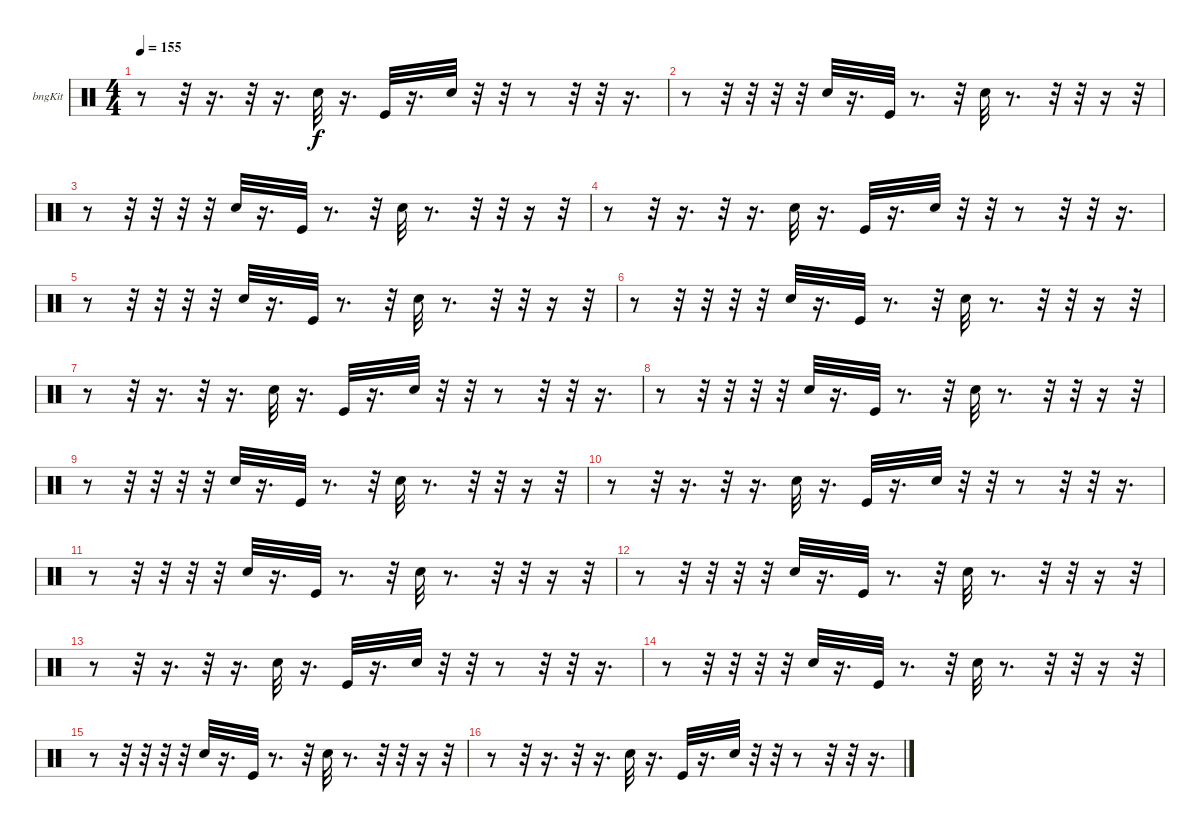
\bracketExtendMode groupsimilarinstruments
\firstSystemTrackNameOrientation horizontal
\otherSystemsTrackNameOrientation horizontal
\track ("Е. Кулаков" "bngKit") {instrument percussion}
\staff {score}
\articulation defaults
\ts (4 4)
\tempo 155
\clef neutral
\ks c
r.8{dy f} r.32 r.16{d} r.32 r.16{d} "Snare (hit) 2".32 r.16{d} "Kick (hit)".32 r.16{d} "Snare (hit) 2".32 r.32 r.32 r.8 r.32 r.32 r.16{d} |
r.8 r.32 r.32 r.32 r.32 "Snare (hit) 2".32 r.16{d} "Kick (hit)".32 r.8{d} r.32 "Snare (hit) 2".32 r.8{d} r.32 r.32 r.16 r.32 |
r.8 r.32 r.32 r.32 r.32 "Snare (hit) 2".32 r.16{d} "Kick (hit)".32 r.8{d} r.32 "Snare (hit) 2".32 r.8{d} r.32 r.32 r.16 r.32 |
r.8 r.32 r.16{d} r.32 r.16{d} "Snare (hit) 2".32 r.16{d} "Kick (hit)".32 r.16{d} "Snare (hit) 2".32 r.32 r.32 r.8 r.32 r.32 r.16{d} |
r.8 r.32 r.32 r.32 r.32 "Snare (hit) 2".32 r.16{d} "Kick (hit)".32 r.8{d} r.32 "Snare (hit) 2".32 r.8{d} r.32 r.32 r.16 r.32 |
r.8 r.32 r.32 r.32 r.32 "Snare (hit) 2".32 r.16{d} "Kick (hit)".32 r.8{d} r.32 "Snare (hit) 2".32 r.8{d} r.32 r.32 r.16 r.32 |
r.8 r.32 r.16{d} r.32 r.16{d} "Snare (hit) 2".32 r.16{d} "Kick (hit)".32 r.16{d} "Snare (hit) 2".32 r.32 r.32 r.8 r.32 r.32 r.16{d} |
r.8 r.32 r.32 r.32 r.32 "Snare (hit) 2".32 r.16{d} "Kick (hit)".32 r.8{d} r.32 "Snare (hit) 2".32 r.8{d} r.32 r.32 r.16 r.32 |
r.8 r.32 r.32 r.32 r.32 "Snare (hit) 2".32 r.16{d} "Kick (hit)".32 r.8{d} r.32 "Snare (hit) 2".32 r.8{d} r.32 r.32 r.16 r.32 |
r.8 r.32 r.16{d} r.32 r.16{d} "Snare (hit) 2".32 r.16{d} "Kick (hit)".32 r.16{d} "Snare (hit) 2".32 r.32 r.32 r.8 r.32 r.32 r.16{d} |
r.8 r.32 r.32 r.32 r.32 "Snare (hit) 2".32 r.16{d} "Kick (hit)".32 r.8{d} r.32 "Snare (hit) 2".32 r.8{d} r.32 r.32 r.16 r.32 |
r.8 r.32 r.32 r.32 r.32 "Snare (hit) 2".32 r.16{d} "Kick (hit)".32 r.8{d} r.32 "Snare (hit) 2".32 r.8{d} r.32 r.32 r.16 r.32 |
r.8 r.32 r.16{d} r.32 r.16{d} "Snare (hit) 2".32 r.16{d} "Kick (hit)".32 r.16{d} "Snare (hit) 2".32 r.32 r.32 r.8 r.32 r.32 r.16{d} |
r.8 r.32 r.32 r.32 r.32 "Snare (hit) 2".32 r.16{d} "Kick (hit)".32 r.8{d} r.32 "Snare (hit) 2".32 r.8{d} r.32 r.32 r.16 r.32 |
r.8 r.32 r.32 r.32 r.32 "Snare (hit) 2".32 r.16{d} "Kick (hit)".32 r.8{d} r.32 "Snare (hit) 2".32 r.8{d} r.32 r.32 r.16 r.32 |
r.8 r.32 r.16{d} r.32 r.16{d} "Snare (hit) 2".32 r.16{d} "Kick (hit)".32 r.16{d} "Snare (hit) 2".32 r.32 r.32 r.8 r.32 r.32 r.16{d}
